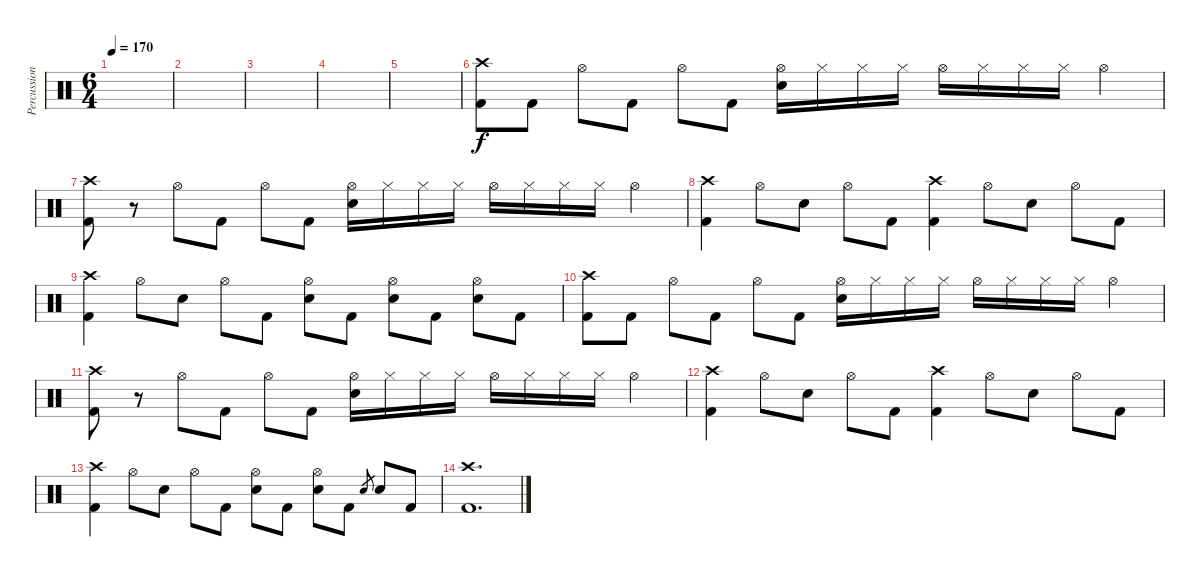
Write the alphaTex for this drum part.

\track ("Percussion" "Percussion") {instrument percussion}
\staff {score}
\articulation defaults
\ts (6 4)
\tempo 170
\clef neutral
\ks c
|
|
|
|
|
("Crash high (hit)" "Kick (hit) 2").8 "Kick (hit) 2".8 "Hi-Hat (open)".8 "Kick (hit) 2".8 "Hi-Hat (open)".8 "Kick (hit) 2".8 ("Hi-Hat (open)" "Electric Snare (hit)").16 "Hi-Hat (closed)".16 "Hi-Hat (closed)".16 "Hi-Hat (closed)".16 "Hi-Hat (open)".16 "Hi-Hat (closed)".16 "Hi-Hat (closed)".16 "Hi-Hat (closed)".16 "Hi-Hat (open)".4 |
("Crash high (hit)" "Kick (hit) 2").8 r.8 "Hi-Hat (open)".8 "Kick (hit) 2".8 "Hi-Hat (open)".8 "Kick (hit) 2".8 ("Hi-Hat (open)" "Electric Snare (hit)").16 "Hi-Hat (closed)".16 "Hi-Hat (closed)".16 "Hi-Hat (closed)".16 "Hi-Hat (open)".16 "Hi-Hat (closed)".16 "Hi-Hat (closed)".16 "Hi-Hat (closed)".16 "Hi-Hat (open)".4 |
("Crash high (hit)" "Kick (hit) 2").4 "Hi-Hat (open)".8 "Electric Snare (hit)".8 "Hi-Hat (open)".8 "Kick (hit) 2".8 ("Crash high (hit)" "Kick (hit) 2").4 "Hi-Hat (open)".8 "Electric Snare (hit)".8 "Hi-Hat (open)".8 "Kick (hit) 2".8 |
("Crash high (hit)" "Kick (hit) 2").4 "Hi-Hat (open)".8 "Electric Snare (hit)".8 "Hi-Hat (open)".8 "Kick (hit) 2".8 ("Hi-Hat (open)" "Electric Snare (hit)").8 "Kick (hit) 2".8 ("Hi-Hat (open)" "Electric Snare (hit)").8 "Kick (hit) 2".8 ("Hi-Hat (open)" "Electric Snare (hit)").8 "Kick (hit) 2".8 |
("Crash high (hit)" "Kick (hit) 2").8 "Kick (hit) 2".8 "Hi-Hat (open)".8 "Kick (hit) 2".8 "Hi-Hat (open)".8 "Kick (hit) 2".8 ("Hi-Hat (open)" "Electric Snare (hit)").16 "Hi-Hat (closed)".16 "Hi-Hat (closed)".16 "Hi-Hat (closed)".16 "Hi-Hat (open)".16 "Hi-Hat (closed)".16 "Hi-Hat (closed)".16 "Hi-Hat (closed)".16 "Hi-Hat (open)".4 |
("Crash high (hit)" "Kick (hit) 2").8 r.8 "Hi-Hat (open)".8 "Kick (hit) 2".8 "Hi-Hat (open)".8 "Kick (hit) 2".8 ("Hi-Hat (open)" "Electric Snare (hit)").16 "Hi-Hat (closed)".16 "Hi-Hat (closed)".16 "Hi-Hat (closed)".16 "Hi-Hat (open)".16 "Hi-Hat (closed)".16 "Hi-Hat (closed)".16 "Hi-Hat (closed)".16 "Hi-Hat (open)".4 |
("Crash high (hit)" "Kick (hit) 2").4 "Hi-Hat (open)".8 "Electric Snare (hit)".8 "Hi-Hat (open)".8 "Kick (hit) 2".8 ("Crash high (hit)" "Kick (hit) 2").4 "Hi-Hat (open)".8 "Electric Snare (hit)".8 "Hi-Hat (open)".8 "Kick (hit) 2".8 |
("Crash high (hit)" "Kick (hit) 2").4 "Hi-Hat (open)".8 "Electric Snare (hit)".8 "Hi-Hat (open)".8 "Kick (hit) 2".8 ("Hi-Hat (open)" "Electric Snare (hit)").8 "Kick (hit) 2".8 ("Hi-Hat (open)" "Electric Snare (hit)").8 "Kick (hit) 2".8 "Electric Snare (hit)".8{gr} "Electric Snare (hit)".8 "Kick (hit) 2".8 |
("Crash high (hit)" "Kick (hit) 2").1{d}
